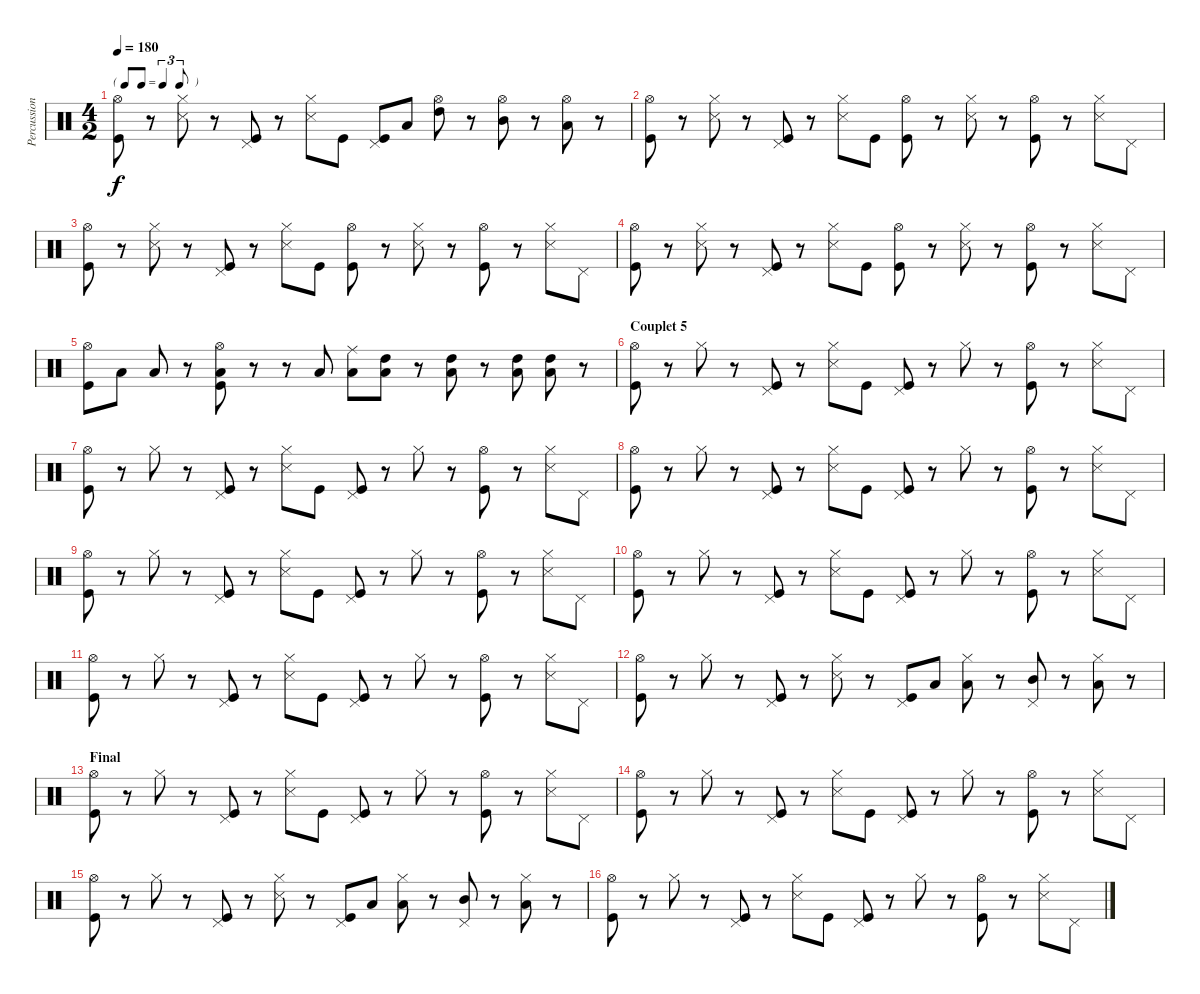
\track ("Percussion" "Percussion") {instrument percussion}
\staff {score}
\articulation defaults
\ts (4 2)
\tf triplet8th
\tempo 180
\clef neutral
\ks c
("Hi-Hat (open)" "Kick (hit)").8{dy f} r.8 ("Hi-Hat (closed)" "Snare (side stick) 3").8 r.8 ("Pedal Hi-Hat (hit)" "Kick (hit)").8 r.8 ("Hi-Hat (closed)" "Snare (side stick) 3").8 "Kick (hit)".8 ("Pedal Hi-Hat (hit)" "Kick (hit)").8 "Low Tom (hit)".8 ("Hi-Hat (open)" "High Tom (hit)").8 r.8 ("Hi-Hat (open)" "Mid Tom (hit)").8 r.8 ("Hi-Hat (open)" "Low Tom (hit)").8 r.8 |
("Hi-Hat (open)" "Kick (hit)").8 r.8 ("Hi-Hat (closed)" "Snare (side stick) 3").8 r.8 ("Pedal Hi-Hat (hit)" "Kick (hit)").8 r.8 ("Hi-Hat (closed)" "Snare (side stick) 3").8 "Kick (hit)".8 ("Hi-Hat (open)" "Kick (hit)").8 r.8 ("Hi-Hat (closed)" "Snare (side stick) 3").8 r.8 ("Hi-Hat (open)" "Kick (hit)").8 r.8 ("Hi-Hat (closed)" "Snare (side stick) 3").8 "Pedal Hi-Hat (hit)".8 |
("Hi-Hat (open)" "Kick (hit)").8 r.8 ("Hi-Hat (closed)" "Snare (side stick) 3").8 r.8 ("Pedal Hi-Hat (hit)" "Kick (hit)").8 r.8 ("Hi-Hat (closed)" "Snare (side stick) 3").8 "Kick (hit)".8 ("Hi-Hat (open)" "Kick (hit)").8 r.8 ("Hi-Hat (closed)" "Snare (side stick) 3").8 r.8 ("Hi-Hat (open)" "Kick (hit)").8 r.8 ("Hi-Hat (closed)" "Snare (side stick) 3").8 "Pedal Hi-Hat (hit)".8 |
("Hi-Hat (open)" "Kick (hit)").8 r.8 ("Hi-Hat (closed)" "Snare (side stick) 3").8 r.8 ("Pedal Hi-Hat (hit)" "Kick (hit)").8 r.8 ("Hi-Hat (closed)" "Snare (side stick) 3").8 "Kick (hit)".8 ("Hi-Hat (open)" "Kick (hit)").8 r.8 ("Hi-Hat (closed)" "Snare (side stick) 3").8 r.8 ("Hi-Hat (open)" "Kick (hit)").8 r.8 ("Hi-Hat (closed)" "Snare (side stick) 3").8 "Pedal Hi-Hat (hit)".8 |
("Hi-Hat (open)" "Kick (hit)").8 "Low Tom (hit)".8 "Low Tom (hit)".8 r.8 ("Hi-Hat (open)" "Low Tom (hit)" "Kick (hit)").8 r.8 r.8 "Low Tom (hit)".8 ("Ride (middle)" "Low Tom (hit)").8 ("High Tom (hit)" "Low Tom (hit)").8 r.8 ("High Tom (hit)" "Low Tom (hit)").8 r.8 ("High Tom (hit)" "Low Tom (hit)").8 ("High Tom (hit)" "Low Tom (hit)").8 r.8 |
\section ("" "Couplet 5")
("Hi-Hat (open)" "Kick (hit)").8 r.8 "Hi-Hat (closed)".8 r.8 ("Pedal Hi-Hat (hit)" "Kick (hit)").8 r.8 ("Hi-Hat (closed)" "Snare (side stick) 3").8 "Kick (hit)".8 ("Pedal Hi-Hat (hit)" "Kick (hit)").8 r.8 "Hi-Hat (closed)".8 r.8 ("Hi-Hat (open)" "Kick (hit)").8 r.8 ("Hi-Hat (closed)" "Snare (side stick) 3").8 "Pedal Hi-Hat (hit)".8 |
("Hi-Hat (open)" "Kick (hit)").8 r.8 "Hi-Hat (closed)".8 r.8 ("Pedal Hi-Hat (hit)" "Kick (hit)").8 r.8 ("Hi-Hat (closed)" "Snare (side stick) 3").8 "Kick (hit)".8 ("Pedal Hi-Hat (hit)" "Kick (hit)").8 r.8 "Hi-Hat (closed)".8 r.8 ("Hi-Hat (open)" "Kick (hit)").8 r.8 ("Hi-Hat (closed)" "Snare (side stick) 3").8 "Pedal Hi-Hat (hit)".8 |
("Hi-Hat (open)" "Kick (hit)").8 r.8 "Hi-Hat (closed)".8 r.8 ("Pedal Hi-Hat (hit)" "Kick (hit)").8 r.8 ("Hi-Hat (closed)" "Snare (side stick) 3").8 "Kick (hit)".8 ("Pedal Hi-Hat (hit)" "Kick (hit)").8 r.8 "Hi-Hat (closed)".8 r.8 ("Hi-Hat (open)" "Kick (hit)").8 r.8 ("Hi-Hat (closed)" "Snare (side stick) 3").8 "Pedal Hi-Hat (hit)".8 |
("Hi-Hat (open)" "Kick (hit)").8 r.8 "Hi-Hat (closed)".8 r.8 ("Pedal Hi-Hat (hit)" "Kick (hit)").8 r.8 ("Hi-Hat (closed)" "Snare (side stick) 3").8 "Kick (hit)".8 ("Pedal Hi-Hat (hit)" "Kick (hit)").8 r.8 "Hi-Hat (closed)".8 r.8 ("Hi-Hat (open)" "Kick (hit)").8 r.8 ("Hi-Hat (closed)" "Snare (side stick) 3").8 "Pedal Hi-Hat (hit)".8 |
("Hi-Hat (open)" "Kick (hit)").8 r.8 "Hi-Hat (closed)".8 r.8 ("Pedal Hi-Hat (hit)" "Kick (hit)").8 r.8 ("Hi-Hat (closed)" "Snare (side stick) 3").8 "Kick (hit)".8 ("Pedal Hi-Hat (hit)" "Kick (hit)").8 r.8 "Hi-Hat (closed)".8 r.8 ("Hi-Hat (open)" "Kick (hit)").8 r.8 ("Hi-Hat (closed)" "Snare (side stick) 3").8 "Pedal Hi-Hat (hit)".8 |
("Hi-Hat (open)" "Kick (hit)").8 r.8 "Hi-Hat (closed)".8 r.8 ("Pedal Hi-Hat (hit)" "Kick (hit)").8 r.8 ("Hi-Hat (closed)" "Snare (side stick) 3").8 "Kick (hit)".8 ("Pedal Hi-Hat (hit)" "Kick (hit)").8 r.8 "Hi-Hat (closed)".8 r.8 ("Hi-Hat (open)" "Kick (hit)").8 r.8 ("Hi-Hat (closed)" "Snare (side stick) 3").8 "Pedal Hi-Hat (hit)".8 |
("Hi-Hat (open)" "Kick (hit)").8 r.8 "Hi-Hat (closed)".8 r.8 ("Pedal Hi-Hat (hit)" "Kick (hit)").8 r.8 ("Hi-Hat (closed)" "Snare (side stick) 3").8 r.8 ("Pedal Hi-Hat (hit)" "Kick (hit)").8 "Low Tom (hit)".8 ("Hi-Hat (closed)" "Low Tom (hit)").8 r.8 ("Pedal Hi-Hat (hit)" "Mid Tom (hit)").8 r.8 ("Hi-Hat (closed)" "Low Tom (hit)").8 r.8 |
\section ("" "Final")
("Hi-Hat (open)" "Kick (hit)").8 r.8 "Hi-Hat (closed)".8 r.8 ("Pedal Hi-Hat (hit)" "Kick (hit)").8 r.8 ("Hi-Hat (closed)" "Snare (side stick) 3").8 "Kick (hit)".8 ("Pedal Hi-Hat (hit)" "Kick (hit)").8 r.8 "Hi-Hat (closed)".8 r.8 ("Hi-Hat (open)" "Kick (hit)").8 r.8 ("Hi-Hat (closed)" "Snare (side stick) 3").8 "Pedal Hi-Hat (hit)".8 |
("Hi-Hat (open)" "Kick (hit)").8 r.8 "Hi-Hat (closed)".8 r.8 ("Pedal Hi-Hat (hit)" "Kick (hit)").8 r.8 ("Hi-Hat (closed)" "Snare (side stick) 3").8 "Kick (hit)".8 ("Pedal Hi-Hat (hit)" "Kick (hit)").8 r.8 "Hi-Hat (closed)".8 r.8 ("Hi-Hat (open)" "Kick (hit)").8 r.8 ("Hi-Hat (closed)" "Snare (side stick) 3").8 "Pedal Hi-Hat (hit)".8 |
("Hi-Hat (open)" "Kick (hit)").8 r.8 "Hi-Hat (closed)".8 r.8 ("Pedal Hi-Hat (hit)" "Kick (hit)").8 r.8 ("Hi-Hat (closed)" "Snare (side stick) 3").8 r.8 ("Pedal Hi-Hat (hit)" "Kick (hit)").8 "Low Tom (hit)".8 ("Hi-Hat (closed)" "Low Tom (hit)").8 r.8 ("Pedal Hi-Hat (hit)" "Mid Tom (hit)").8 r.8 ("Hi-Hat (closed)" "Low Tom (hit)").8 r.8 |
("Hi-Hat (open)" "Kick (hit)").8 r.8 "Hi-Hat (closed)".8 r.8 ("Pedal Hi-Hat (hit)" "Kick (hit)").8 r.8 ("Hi-Hat (closed)" "Snare (side stick) 3").8 "Kick (hit)".8 ("Pedal Hi-Hat (hit)" "Kick (hit)").8 r.8 "Hi-Hat (closed)".8 r.8 ("Hi-Hat (open)" "Kick (hit)").8 r.8 ("Hi-Hat (closed)" "Snare (side stick) 3").8 "Pedal Hi-Hat (hit)".8
